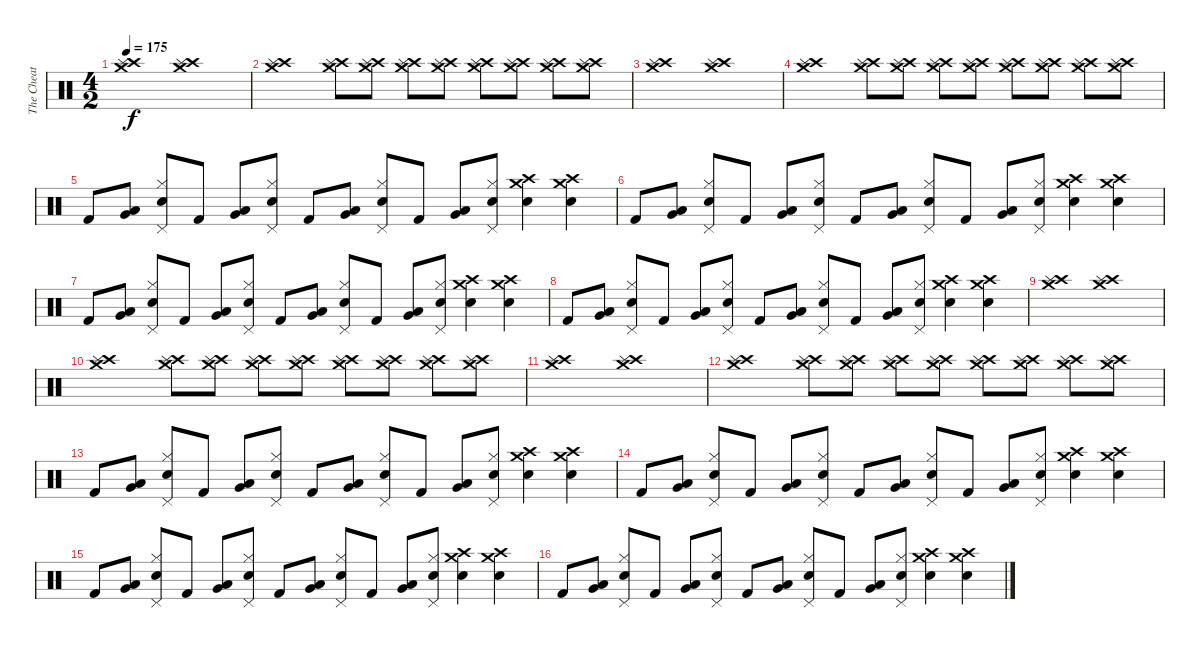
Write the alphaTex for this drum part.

\track ("The Cheat Keyboard Beat" "The Cheat ") {instrument percussion}
\staff {score}
\articulation defaults
\ts (4 2)
\tempo 175
\clef neutral
\ks c
("Crash high (hit)" "Splash (hit)" "Crash medium (hit)").1{dy f} ("Crash high (hit)" "Splash (hit)" "Crash medium (hit)").1 |
("Crash high (hit)" "Splash (hit)" "Crash medium (hit)").1 ("Crash high (hit)" "Splash (hit)" "Crash medium (hit)").8 ("Crash high (hit)" "Splash (hit)" "Crash medium (hit)").8 ("Crash high (hit)" "Splash (hit)" "Crash medium (hit)").8 ("Crash high (hit)" "Splash (hit)" "Crash medium (hit)").8 ("Crash high (hit)" "Splash (hit)" "Crash medium (hit)").8 ("Crash high (hit)" "Splash (hit)" "Crash medium (hit)").8 ("Crash high (hit)" "Splash (hit)" "Crash medium (hit)").8 ("Crash high (hit)" "Splash (hit)" "Crash medium (hit)").8 |
("Crash high (hit)" "Splash (hit)" "Crash medium (hit)").1 ("Crash high (hit)" "Splash (hit)" "Crash medium (hit)").1 |
("Crash high (hit)" "Splash (hit)" "Crash medium (hit)").1 ("Crash high (hit)" "Splash (hit)" "Crash medium (hit)").8 ("Crash high (hit)" "Splash (hit)" "Crash medium (hit)").8 ("Crash high (hit)" "Splash (hit)" "Crash medium (hit)").8 ("Crash high (hit)" "Splash (hit)" "Crash medium (hit)").8 ("Crash high (hit)" "Splash (hit)" "Crash medium (hit)").8 ("Crash high (hit)" "Splash (hit)" "Crash medium (hit)").8 ("Crash high (hit)" "Splash (hit)" "Crash medium (hit)").8 ("Crash high (hit)" "Splash (hit)" "Crash medium (hit)").8 |
"Kick (hit) 2".8 ("Low Floor Tom (hit)" "Very Low Tom (hit)").8 ("Electric Snare (hit)" "Hi-Hat (closed)" "Pedal Hi-Hat (hit)").8 "Kick (hit) 2".8 ("Low Floor Tom (hit)" "Very Low Tom (hit)").8 ("Electric Snare (hit)" "Hi-Hat (closed)" "Pedal Hi-Hat (hit)").8 "Kick (hit) 2".8 ("Low Floor Tom (hit)" "Very Low Tom (hit)").8 ("Electric Snare (hit)" "Hi-Hat (closed)" "Pedal Hi-Hat (hit)").8 "Kick (hit) 2".8 ("Low Floor Tom (hit)" "Very Low Tom (hit)").8 ("Electric Snare (hit)" "Hi-Hat (closed)" "Pedal Hi-Hat (hit)").8 ("Crash high (hit)" "Electric Snare (hit)" "Crash medium (hit)").4 ("Crash high (hit)" "Electric Snare (hit)" "Crash medium (hit)").4 |
"Kick (hit) 2".8 ("Low Floor Tom (hit)" "Very Low Tom (hit)").8 ("Electric Snare (hit)" "Hi-Hat (closed)" "Pedal Hi-Hat (hit)").8 "Kick (hit) 2".8 ("Low Floor Tom (hit)" "Very Low Tom (hit)").8 ("Electric Snare (hit)" "Hi-Hat (closed)" "Pedal Hi-Hat (hit)").8 "Kick (hit) 2".8 ("Low Floor Tom (hit)" "Very Low Tom (hit)").8 ("Electric Snare (hit)" "Hi-Hat (closed)" "Pedal Hi-Hat (hit)").8 "Kick (hit) 2".8 ("Low Floor Tom (hit)" "Very Low Tom (hit)").8 ("Electric Snare (hit)" "Hi-Hat (closed)" "Pedal Hi-Hat (hit)").8 ("Crash high (hit)" "Electric Snare (hit)" "Crash medium (hit)").4 ("Crash high (hit)" "Electric Snare (hit)" "Crash medium (hit)").4 |
"Kick (hit) 2".8 ("Low Floor Tom (hit)" "Very Low Tom (hit)").8 ("Electric Snare (hit)" "Hi-Hat (closed)" "Pedal Hi-Hat (hit)").8 "Kick (hit) 2".8 ("Low Floor Tom (hit)" "Very Low Tom (hit)").8 ("Electric Snare (hit)" "Hi-Hat (closed)" "Pedal Hi-Hat (hit)").8 "Kick (hit) 2".8 ("Low Floor Tom (hit)" "Very Low Tom (hit)").8 ("Electric Snare (hit)" "Hi-Hat (closed)" "Pedal Hi-Hat (hit)").8 "Kick (hit) 2".8 ("Low Floor Tom (hit)" "Very Low Tom (hit)").8 ("Electric Snare (hit)" "Hi-Hat (closed)" "Pedal Hi-Hat (hit)").8 ("Crash high (hit)" "Electric Snare (hit)" "Crash medium (hit)").4 ("Crash high (hit)" "Electric Snare (hit)" "Crash medium (hit)").4 |
"Kick (hit) 2".8 ("Low Floor Tom (hit)" "Very Low Tom (hit)").8 ("Electric Snare (hit)" "Hi-Hat (closed)" "Pedal Hi-Hat (hit)").8 "Kick (hit) 2".8 ("Low Floor Tom (hit)" "Very Low Tom (hit)").8 ("Electric Snare (hit)" "Hi-Hat (closed)" "Pedal Hi-Hat (hit)").8 "Kick (hit) 2".8 ("Low Floor Tom (hit)" "Very Low Tom (hit)").8 ("Electric Snare (hit)" "Hi-Hat (closed)" "Pedal Hi-Hat (hit)").8 "Kick (hit) 2".8 ("Low Floor Tom (hit)" "Very Low Tom (hit)").8 ("Electric Snare (hit)" "Hi-Hat (closed)" "Pedal Hi-Hat (hit)").8 ("Crash high (hit)" "Electric Snare (hit)" "Crash medium (hit)").4 ("Crash high (hit)" "Electric Snare (hit)" "Crash medium (hit)").4 |
("Crash high (hit)" "Splash (hit)" "Crash medium (hit)").1 ("Crash high (hit)" "Splash (hit)" "Crash medium (hit)").1 |
("Crash high (hit)" "Splash (hit)" "Crash medium (hit)").1 ("Crash high (hit)" "Splash (hit)" "Crash medium (hit)").8 ("Crash high (hit)" "Splash (hit)" "Crash medium (hit)").8 ("Crash high (hit)" "Splash (hit)" "Crash medium (hit)").8 ("Crash high (hit)" "Splash (hit)" "Crash medium (hit)").8 ("Crash high (hit)" "Splash (hit)" "Crash medium (hit)").8 ("Crash high (hit)" "Splash (hit)" "Crash medium (hit)").8 ("Crash high (hit)" "Splash (hit)" "Crash medium (hit)").8 ("Crash high (hit)" "Splash (hit)" "Crash medium (hit)").8 |
("Crash high (hit)" "Splash (hit)" "Crash medium (hit)").1 ("Crash high (hit)" "Splash (hit)" "Crash medium (hit)").1 |
("Crash high (hit)" "Splash (hit)" "Crash medium (hit)").1 ("Crash high (hit)" "Splash (hit)" "Crash medium (hit)").8 ("Crash high (hit)" "Splash (hit)" "Crash medium (hit)").8 ("Crash high (hit)" "Splash (hit)" "Crash medium (hit)").8 ("Crash high (hit)" "Splash (hit)" "Crash medium (hit)").8 ("Crash high (hit)" "Splash (hit)" "Crash medium (hit)").8 ("Crash high (hit)" "Splash (hit)" "Crash medium (hit)").8 ("Crash high (hit)" "Splash (hit)" "Crash medium (hit)").8 ("Crash high (hit)" "Splash (hit)" "Crash medium (hit)").8 |
"Kick (hit) 2".8 ("Low Floor Tom (hit)" "Very Low Tom (hit)").8 ("Electric Snare (hit)" "Hi-Hat (closed)" "Pedal Hi-Hat (hit)").8 "Kick (hit) 2".8 ("Low Floor Tom (hit)" "Very Low Tom (hit)").8 ("Electric Snare (hit)" "Hi-Hat (closed)" "Pedal Hi-Hat (hit)").8 "Kick (hit) 2".8 ("Low Floor Tom (hit)" "Very Low Tom (hit)").8 ("Electric Snare (hit)" "Hi-Hat (closed)" "Pedal Hi-Hat (hit)").8 "Kick (hit) 2".8 ("Low Floor Tom (hit)" "Very Low Tom (hit)").8 ("Electric Snare (hit)" "Hi-Hat (closed)" "Pedal Hi-Hat (hit)").8 ("Crash high (hit)" "Electric Snare (hit)" "Crash medium (hit)").4 ("Crash high (hit)" "Electric Snare (hit)" "Crash medium (hit)").4 |
"Kick (hit) 2".8 ("Low Floor Tom (hit)" "Very Low Tom (hit)").8 ("Electric Snare (hit)" "Hi-Hat (closed)" "Pedal Hi-Hat (hit)").8 "Kick (hit) 2".8 ("Low Floor Tom (hit)" "Very Low Tom (hit)").8 ("Electric Snare (hit)" "Hi-Hat (closed)" "Pedal Hi-Hat (hit)").8 "Kick (hit) 2".8 ("Low Floor Tom (hit)" "Very Low Tom (hit)").8 ("Electric Snare (hit)" "Hi-Hat (closed)" "Pedal Hi-Hat (hit)").8 "Kick (hit) 2".8 ("Low Floor Tom (hit)" "Very Low Tom (hit)").8 ("Electric Snare (hit)" "Hi-Hat (closed)" "Pedal Hi-Hat (hit)").8 ("Crash high (hit)" "Electric Snare (hit)" "Crash medium (hit)").4 ("Crash high (hit)" "Electric Snare (hit)" "Crash medium (hit)").4 |
"Kick (hit) 2".8 ("Low Floor Tom (hit)" "Very Low Tom (hit)").8 ("Electric Snare (hit)" "Hi-Hat (closed)" "Pedal Hi-Hat (hit)").8 "Kick (hit) 2".8 ("Low Floor Tom (hit)" "Very Low Tom (hit)").8 ("Electric Snare (hit)" "Hi-Hat (closed)" "Pedal Hi-Hat (hit)").8 "Kick (hit) 2".8 ("Low Floor Tom (hit)" "Very Low Tom (hit)").8 ("Electric Snare (hit)" "Hi-Hat (closed)" "Pedal Hi-Hat (hit)").8 "Kick (hit) 2".8 ("Low Floor Tom (hit)" "Very Low Tom (hit)").8 ("Electric Snare (hit)" "Hi-Hat (closed)" "Pedal Hi-Hat (hit)").8 ("Crash high (hit)" "Electric Snare (hit)" "Crash medium (hit)").4 ("Crash high (hit)" "Electric Snare (hit)" "Crash medium (hit)").4 |
"Kick (hit) 2".8 ("Low Floor Tom (hit)" "Very Low Tom (hit)").8 ("Electric Snare (hit)" "Hi-Hat (closed)" "Pedal Hi-Hat (hit)").8 "Kick (hit) 2".8 ("Low Floor Tom (hit)" "Very Low Tom (hit)").8 ("Electric Snare (hit)" "Hi-Hat (closed)" "Pedal Hi-Hat (hit)").8 "Kick (hit) 2".8 ("Low Floor Tom (hit)" "Very Low Tom (hit)").8 ("Electric Snare (hit)" "Hi-Hat (closed)" "Pedal Hi-Hat (hit)").8 "Kick (hit) 2".8 ("Low Floor Tom (hit)" "Very Low Tom (hit)").8 ("Electric Snare (hit)" "Hi-Hat (closed)" "Pedal Hi-Hat (hit)").8 ("Crash high (hit)" "Electric Snare (hit)" "Crash medium (hit)").4 ("Crash high (hit)" "Electric Snare (hit)" "Crash medium (hit)").4
